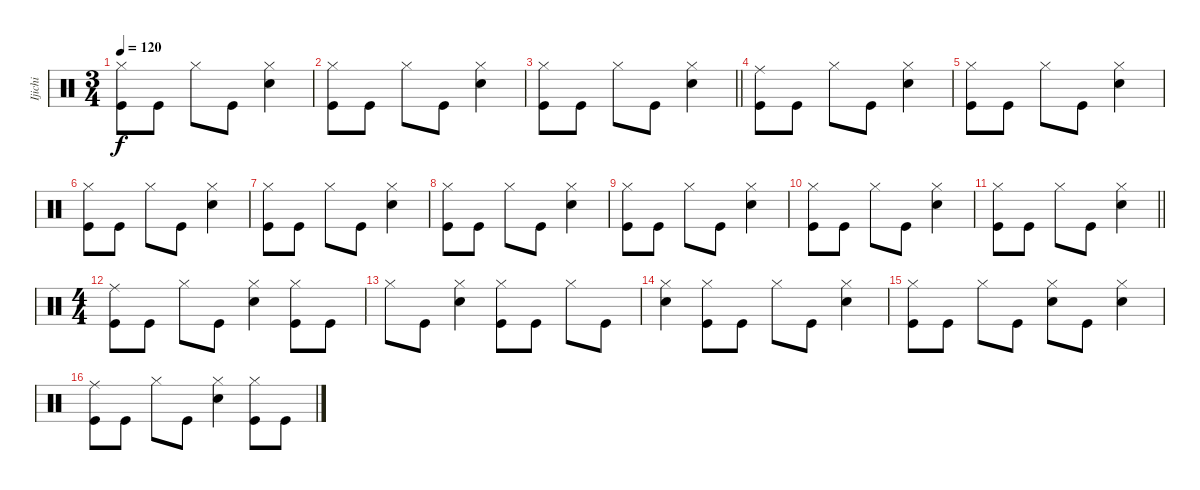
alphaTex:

\track ("Ijichi" "Ijichi") {instrument percussion}
\staff {score}
\articulation defaults
\ts (3 4)
\tempo 120
\clef neutral
\ks c
("Hi-Hat (closed)" "Kick (hit)").8{dy f} "Kick (hit)".8 "Hi-Hat (closed)".8 "Kick (hit)".8 ("Hi-Hat (closed)" "Snare (hit) 2").4 |
("Hi-Hat (closed)" "Kick (hit)").8 "Kick (hit)".8 "Hi-Hat (closed)".8 "Kick (hit)".8 ("Hi-Hat (closed)" "Snare (hit) 2").4 |
\barLineRight lightlight
("Hi-Hat (closed)" "Kick (hit)").8 "Kick (hit)".8 "Hi-Hat (closed)".8 "Kick (hit)".8 ("Hi-Hat (closed)" "Snare (hit) 2").4 |
("Ride (middle)" "Kick (hit)").8 "Kick (hit)".8 "Hi-Hat (closed)".8 "Kick (hit)".8 ("Hi-Hat (closed)" "Snare (hit) 2").4 |
("Hi-Hat (closed)" "Kick (hit)").8 "Kick (hit)".8 "Hi-Hat (closed)".8 "Kick (hit)".8 ("Hi-Hat (closed)" "Snare (hit) 2").4 |
("Hi-Hat (closed)" "Kick (hit)").8 "Kick (hit)".8 "Hi-Hat (closed)".8 "Kick (hit)".8 ("Hi-Hat (closed)" "Snare (hit) 2").4 |
("Hi-Hat (closed)" "Kick (hit)").8 "Kick (hit)".8 "Hi-Hat (closed)".8 "Kick (hit)".8 ("Hi-Hat (closed)" "Snare (hit) 2").4 |
("Hi-Hat (closed)" "Kick (hit)").8 "Kick (hit)".8 "Hi-Hat (closed)".8 "Kick (hit)".8 ("Hi-Hat (closed)" "Snare (hit) 2").4 |
("Hi-Hat (closed)" "Kick (hit)").8 "Kick (hit)".8 "Hi-Hat (closed)".8 "Kick (hit)".8 ("Hi-Hat (closed)" "Snare (hit) 2").4 |
("Hi-Hat (closed)" "Kick (hit)").8 "Kick (hit)".8 "Hi-Hat (closed)".8 "Kick (hit)".8 ("Hi-Hat (closed)" "Snare (hit) 2").4 |
\barLineRight lightlight
("Hi-Hat (closed)" "Kick (hit)").8 "Kick (hit)".8 "Hi-Hat (closed)".8 "Kick (hit)".8 ("Hi-Hat (closed)" "Snare (hit) 2").4 |
\ts (4 4)
("Ride (middle)" "Kick (hit)").8 "Kick (hit)".8 "Hi-Hat (closed)".8 "Kick (hit)".8 ("Hi-Hat (closed)" "Snare (hit) 2").4 ("Hi-Hat (closed)" "Kick (hit)").8 "Kick (hit)".8 |
"Hi-Hat (closed)".8 "Kick (hit)".8 ("Hi-Hat (closed)" "Snare (hit) 2").4 ("Hi-Hat (closed)" "Kick (hit)").8 "Kick (hit)".8 "Hi-Hat (closed)".8 "Kick (hit)".8 |
("Hi-Hat (closed)" "Snare (hit) 2").4 ("Hi-Hat (closed)" "Kick (hit)").8 "Kick (hit)".8 "Hi-Hat (closed)".8 "Kick (hit)".8 ("Hi-Hat (closed)" "Snare (hit) 2").4 |
("Hi-Hat (closed)" "Kick (hit)").8 "Kick (hit)".8 "Hi-Hat (closed)".8 "Kick (hit)".8 ("Hi-Hat (closed)" "Snare (hit) 2").8 "Kick (hit)".8 ("Hi-Hat (closed)" "Snare (hit) 2").4 |
("Ride (middle)" "Kick (hit)").8 "Kick (hit)".8 "Hi-Hat (closed)".8 "Kick (hit)".8 ("Hi-Hat (closed)" "Snare (hit) 2").4 ("Hi-Hat (closed)" "Kick (hit)").8 "Kick (hit)".8
